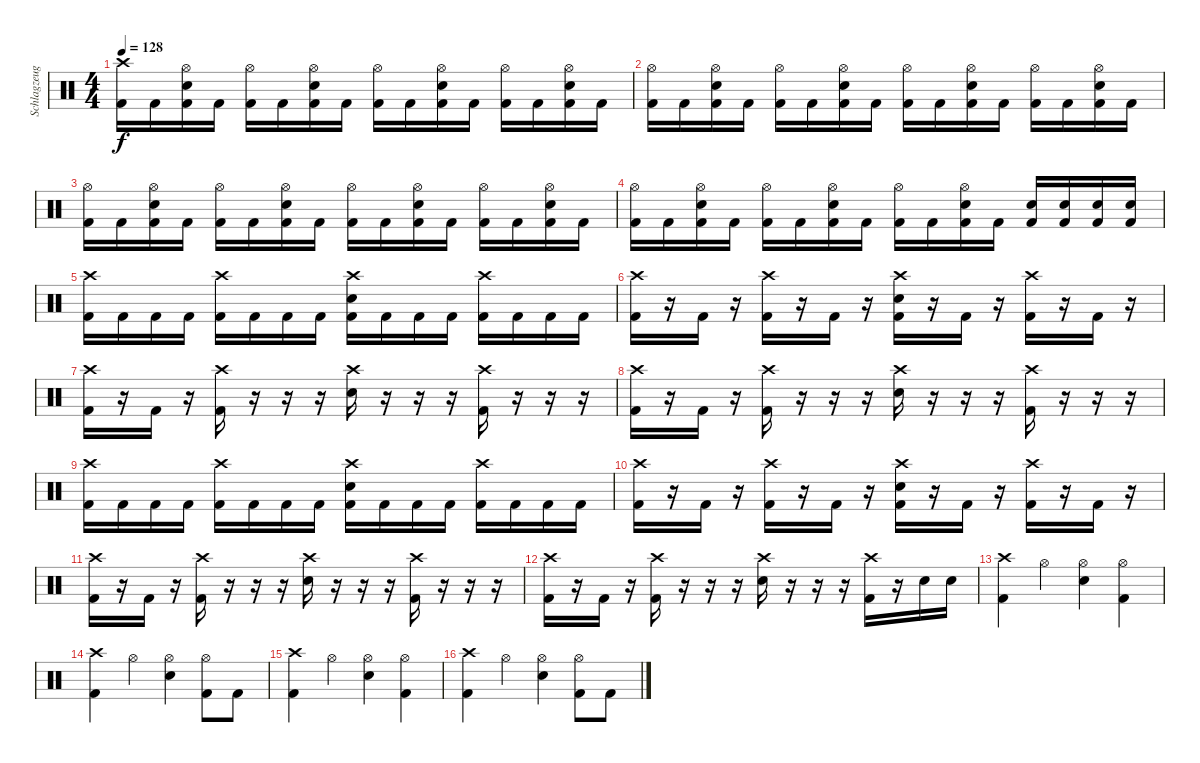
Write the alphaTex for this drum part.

\track ("Schlagzeug" "Schlagzeug") {instrument percussion}
\staff {score}
\articulation defaults
\ts (4 4)
\tempo 128
\clef neutral
\ks c
("Crash high (hit)" "Kick (hit) 2").16{dy f} "Kick (hit) 2".16 ("Hi-Hat (open)" "Snare (hit) 2" "Kick (hit) 2").16 "Kick (hit) 2".16 ("Hi-Hat (open)" "Kick (hit) 2").16 "Kick (hit) 2".16 ("Hi-Hat (open)" "Snare (hit) 2" "Kick (hit) 2").16 "Kick (hit) 2".16 ("Hi-Hat (open)" "Kick (hit) 2").16 "Kick (hit) 2".16 ("Hi-Hat (open)" "Snare (hit) 2" "Kick (hit) 2").16 "Kick (hit) 2".16 ("Hi-Hat (open)" "Kick (hit) 2").16 "Kick (hit) 2".16 ("Hi-Hat (open)" "Snare (hit) 2" "Kick (hit) 2").16 "Kick (hit) 2".16 |
("Hi-Hat (open)" "Kick (hit) 2").16 "Kick (hit) 2".16 ("Hi-Hat (open)" "Snare (hit) 2" "Kick (hit) 2").16 "Kick (hit) 2".16 ("Hi-Hat (open)" "Kick (hit) 2").16 "Kick (hit) 2".16 ("Hi-Hat (open)" "Snare (hit) 2" "Kick (hit) 2").16 "Kick (hit) 2".16 ("Hi-Hat (open)" "Kick (hit) 2").16 "Kick (hit) 2".16 ("Hi-Hat (open)" "Snare (hit) 2" "Kick (hit) 2").16 "Kick (hit) 2".16 ("Hi-Hat (open)" "Kick (hit) 2").16 "Kick (hit) 2".16 ("Hi-Hat (open)" "Snare (hit) 2" "Kick (hit) 2").16 "Kick (hit) 2".16 |
("Hi-Hat (open)" "Kick (hit) 2").16 "Kick (hit) 2".16 ("Hi-Hat (open)" "Snare (hit) 2" "Kick (hit) 2").16 "Kick (hit) 2".16 ("Hi-Hat (open)" "Kick (hit) 2").16 "Kick (hit) 2".16 ("Hi-Hat (open)" "Snare (hit) 2" "Kick (hit) 2").16 "Kick (hit) 2".16 ("Hi-Hat (open)" "Kick (hit) 2").16 "Kick (hit) 2".16 ("Hi-Hat (open)" "Snare (hit) 2" "Kick (hit) 2").16 "Kick (hit) 2".16 ("Hi-Hat (open)" "Kick (hit) 2").16 "Kick (hit) 2".16 ("Hi-Hat (open)" "Snare (hit) 2" "Kick (hit) 2").16 "Kick (hit) 2".16 |
("Hi-Hat (open)" "Kick (hit) 2").16 "Kick (hit) 2".16 ("Hi-Hat (open)" "Snare (hit) 2" "Kick (hit) 2").16 "Kick (hit) 2".16 ("Hi-Hat (open)" "Kick (hit) 2").16 "Kick (hit) 2".16 ("Hi-Hat (open)" "Snare (hit) 2" "Kick (hit) 2").16 "Kick (hit) 2".16 ("Hi-Hat (open)" "Kick (hit) 2").16 "Kick (hit) 2".16 ("Hi-Hat (open)" "Snare (hit) 2" "Kick (hit) 2").16 "Kick (hit) 2".16 ("Snare (hit) 2" "Kick (hit) 2").16 ("Snare (hit) 2" "Kick (hit) 2").16 ("Snare (hit) 2" "Kick (hit) 2").16 ("Snare (hit) 2" "Kick (hit) 2").16 |
("Crash high (hit)" "Kick (hit) 2").16 "Kick (hit) 2".16 "Kick (hit) 2".16 "Kick (hit) 2".16 ("Crash high (hit)" "Kick (hit) 2").16 "Kick (hit) 2".16 "Kick (hit) 2".16 "Kick (hit) 2".16 ("Crash high (hit)" "Snare (hit) 2" "Kick (hit) 2").16 "Kick (hit) 2".16 "Kick (hit) 2".16 "Kick (hit) 2".16 ("Crash high (hit)" "Kick (hit) 2").16 "Kick (hit) 2".16 "Kick (hit) 2".16 "Kick (hit) 2".16 |
("Crash high (hit)" "Kick (hit) 2").16 r.16 "Kick (hit) 2".16 r.16 ("Crash high (hit)" "Kick (hit) 2").16 r.16 "Kick (hit) 2".16 r.16 ("Crash high (hit)" "Snare (hit) 2" "Kick (hit) 2").16 r.16 "Kick (hit) 2".16 r.16 ("Crash high (hit)" "Kick (hit) 2").16 r.16 "Kick (hit) 2".16 r.16 |
("Crash high (hit)" "Kick (hit) 2").16 r.16 "Kick (hit) 2".16 r.16 ("Crash high (hit)" "Kick (hit) 2").16 r.16 r.16 r.16 ("Crash high (hit)" "Snare (hit) 2").16 r.16 r.16 r.16 ("Crash high (hit)" "Kick (hit) 2").16 r.16 r.16 r.16 |
("Crash high (hit)" "Kick (hit) 2").16 r.16 "Kick (hit) 2".16 r.16 ("Crash high (hit)" "Kick (hit) 2").16 r.16 r.16 r.16 ("Crash high (hit)" "Snare (hit) 2").16 r.16 r.16 r.16 ("Crash high (hit)" "Kick (hit) 2").16 r.16 r.16 r.16 |
("Crash high (hit)" "Kick (hit) 2").16 "Kick (hit) 2".16 "Kick (hit) 2".16 "Kick (hit) 2".16 ("Crash high (hit)" "Kick (hit) 2").16 "Kick (hit) 2".16 "Kick (hit) 2".16 "Kick (hit) 2".16 ("Crash high (hit)" "Snare (hit) 2" "Kick (hit) 2").16 "Kick (hit) 2".16 "Kick (hit) 2".16 "Kick (hit) 2".16 ("Crash high (hit)" "Kick (hit) 2").16 "Kick (hit) 2".16 "Kick (hit) 2".16 "Kick (hit) 2".16 |
("Crash high (hit)" "Kick (hit) 2").16 r.16 "Kick (hit) 2".16 r.16 ("Crash high (hit)" "Kick (hit) 2").16 r.16 "Kick (hit) 2".16 r.16 ("Crash high (hit)" "Snare (hit) 2" "Kick (hit) 2").16 r.16 "Kick (hit) 2".16 r.16 ("Crash high (hit)" "Kick (hit) 2").16 r.16 "Kick (hit) 2".16 r.16 |
("Crash high (hit)" "Kick (hit) 2").16 r.16 "Kick (hit) 2".16 r.16 ("Crash high (hit)" "Kick (hit) 2").16 r.16 r.16 r.16 ("Crash high (hit)" "Snare (hit) 2").16 r.16 r.16 r.16 ("Crash high (hit)" "Kick (hit) 2").16 r.16 r.16 r.16 |
("Crash high (hit)" "Kick (hit) 2").16 r.16 "Kick (hit) 2".16 r.16 ("Crash high (hit)" "Kick (hit) 2").16 r.16 r.16 r.16 ("Crash high (hit)" "Snare (hit) 2").16 r.16 r.16 r.16 ("Crash high (hit)" "Kick (hit) 2").16 r.16 "Snare (hit) 2".16 "Snare (hit) 2".16 |
("Crash high (hit)" "Kick (hit) 2").4 "Hi-Hat (open)".4 ("Hi-Hat (open)" "Snare (hit) 2").4 ("Hi-Hat (open)" "Kick (hit) 2").4 |
("Crash high (hit)" "Kick (hit) 2").4 "Hi-Hat (open)".4 ("Hi-Hat (open)" "Snare (hit) 2").4 ("Hi-Hat (open)" "Kick (hit) 2").8 "Kick (hit) 2".8 |
("Crash high (hit)" "Kick (hit) 2").4 "Hi-Hat (open)".4 ("Hi-Hat (open)" "Snare (hit) 2").4 ("Hi-Hat (open)" "Kick (hit) 2").4 |
("Crash high (hit)" "Kick (hit) 2").4 "Hi-Hat (open)".4 ("Hi-Hat (open)" "Snare (hit) 2").4 ("Hi-Hat (open)" "Kick (hit) 2").8 "Kick (hit) 2".8
